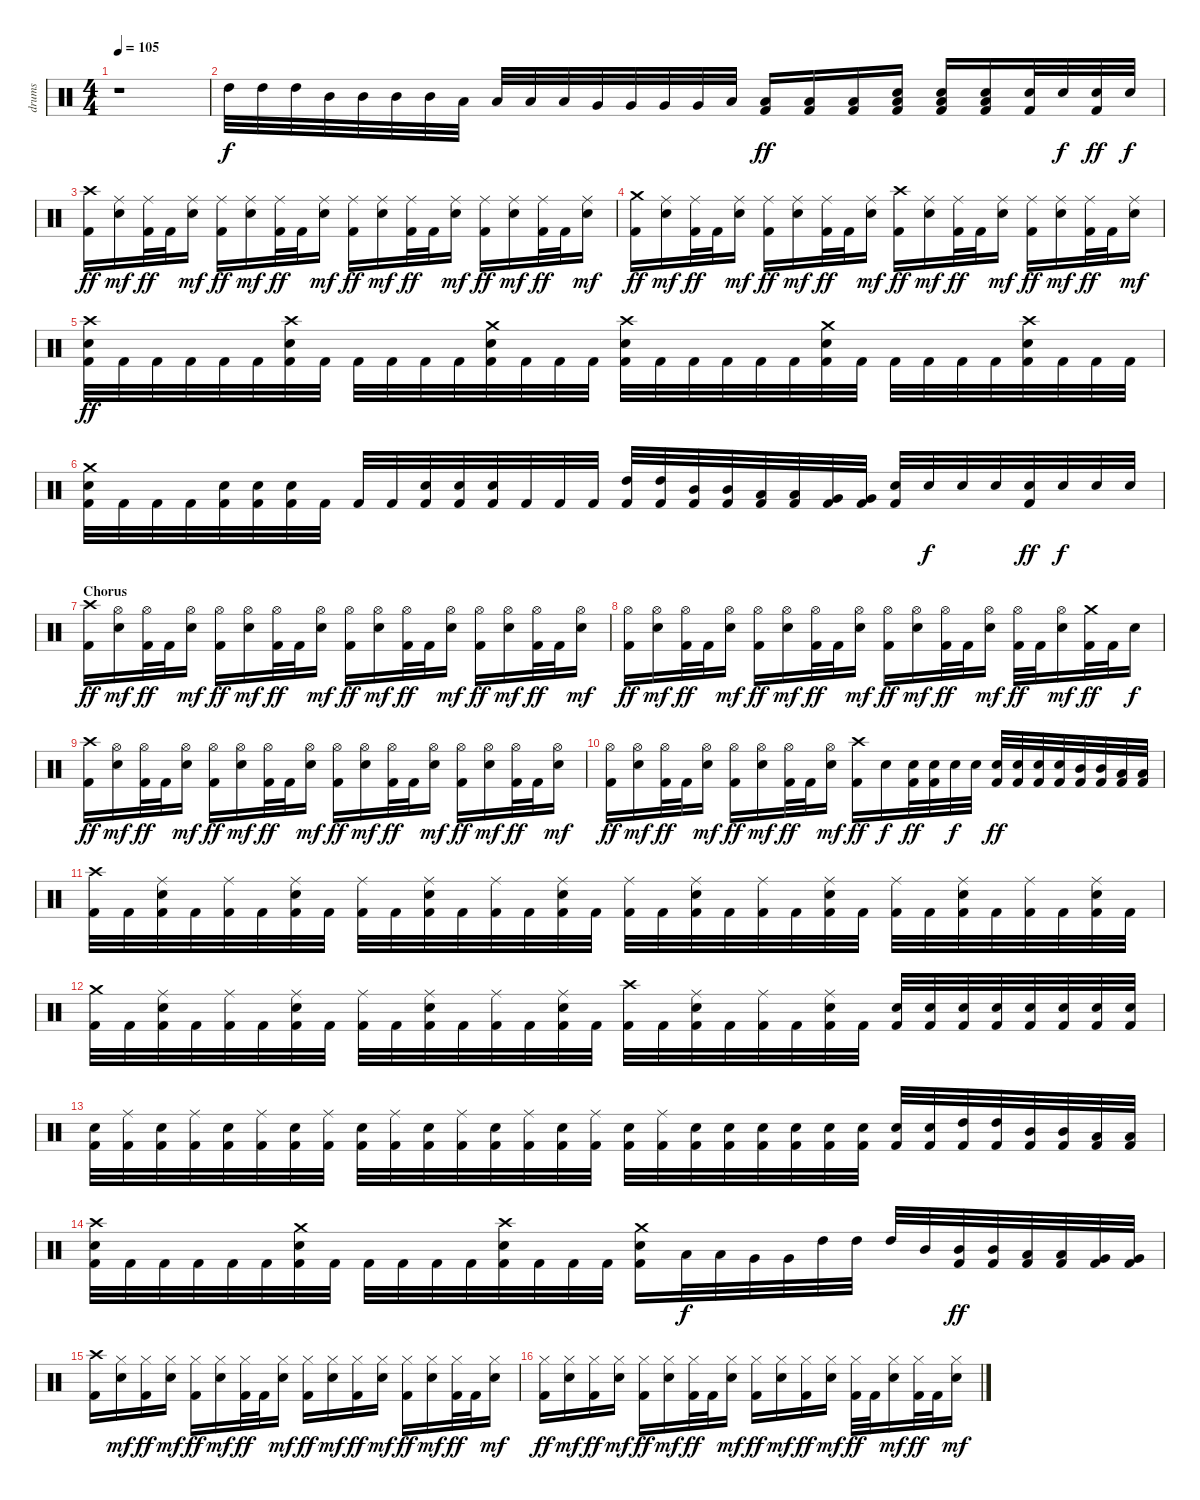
\track ("drums" "drums") {instrument percussion}
\staff {score}
\articulation defaults
\ts (4 4)
\tempo 105
\clef neutral
\ks c
r.1{dy ff} |
"High Tom (hit)".32{dy f} "High Tom (hit)".32 "High Tom (hit)".32 "Mid Tom (hit)".32 "Mid Tom (hit)".32 "Mid Tom (hit)".32 "Mid Tom (hit)".32 "Low Tom (hit)".32 "Low Tom (hit)".32 "Low Tom (hit)".32 "Low Tom (hit)".32 "Very Low Tom (hit)".32 "Very Low Tom (hit)".32 "Very Low Tom (hit)".32 "Very Low Tom (hit)".32 "Low Floor Tom (hit)".32 ("Low Floor Tom (hit)" "Kick (hit) 2").16{dy ff} ("Low Floor Tom (hit)" "Kick (hit) 2").16 ("Low Floor Tom (hit)" "Kick (hit) 2").16 ("Low Floor Tom (hit)" "Snare (hit) 2" "Kick (hit) 2").16 ("Low Floor Tom (hit)" "Snare (hit) 2" "Kick (hit) 2").16 ("Low Floor Tom (hit)" "Snare (hit) 2" "Kick (hit) 2").16 ("Snare (hit) 2" "Kick (hit) 2").32 "Snare (hit) 2".32{dy f} ("Snare (hit) 2" "Kick (hit) 2").32{dy ff} "Snare (hit) 2".32{dy f} |
("Crash high (hit)" "Kick (hit) 2").16{dy ff} ("Ride (middle)" "Snare (hit) 2").16{dy mf} ("Ride (middle)" "Kick (hit) 2").32{dy ff} "Kick (hit) 2".32 ("Ride (middle)" "Snare (hit) 2").16{dy mf} ("Ride (middle)" "Kick (hit) 2").16{dy ff} ("Ride (middle)" "Snare (hit) 2").16{dy mf} ("Ride (middle)" "Kick (hit) 2").32{dy ff} "Kick (hit) 2".32 ("Ride (middle)" "Snare (hit) 2").16{dy mf} ("Ride (middle)" "Kick (hit) 2").16{dy ff} ("Ride (middle)" "Snare (hit) 2").16{dy mf} ("Ride (middle)" "Kick (hit) 2").32{dy ff} "Kick (hit) 2".32 ("Ride (middle)" "Snare (hit) 2").16{dy mf} ("Ride (middle)" "Kick (hit) 2").16{dy ff} ("Ride (middle)" "Snare (hit) 2").16{dy mf} ("Ride (middle)" "Kick (hit) 2").32{dy ff} "Kick (hit) 2".32 ("Ride (middle)" "Snare (hit) 2").16{dy mf} |
("Crash medium (hit)" "Kick (hit) 2").16{dy ff} ("Ride (middle)" "Snare (hit) 2").16{dy mf} ("Ride (middle)" "Kick (hit) 2").32{dy ff} "Kick (hit) 2".32 ("Ride (middle)" "Snare (hit) 2").16{dy mf} ("Ride (middle)" "Kick (hit) 2").16{dy ff} ("Ride (middle)" "Snare (hit) 2").16{dy mf} ("Ride (middle)" "Kick (hit) 2").32{dy ff} "Kick (hit) 2".32 ("Ride (middle)" "Snare (hit) 2").16{dy mf} ("Crash high (hit)" "Kick (hit) 2").16{dy ff} ("Ride (middle)" "Snare (hit) 2").16{dy mf} ("Ride (middle)" "Kick (hit) 2").32{dy ff} "Kick (hit) 2".32 ("Ride (middle)" "Snare (hit) 2").16{dy mf} ("Ride (middle)" "Kick (hit) 2").16{dy ff} ("Ride (middle)" "Snare (hit) 2").16{dy mf} ("Ride (middle)" "Kick (hit) 2").32{dy ff} "Kick (hit) 2".32 ("Ride (middle)" "Snare (hit) 2").16{dy mf} |
("Crash high (hit)" "Snare (hit) 2" "Kick (hit) 2").32{dy ff} "Kick (hit) 2".32 "Kick (hit) 2".32 "Kick (hit) 2".32 "Kick (hit) 2".32 "Kick (hit) 2".32 ("Crash high (hit)" "Snare (hit) 2" "Kick (hit) 2").32 "Kick (hit) 2".32 "Kick (hit) 2".32 "Kick (hit) 2".32 "Kick (hit) 2".32 "Kick (hit) 2".32 ("Crash medium (hit)" "Snare (hit) 2" "Kick (hit) 2").32 "Kick (hit) 2".32 "Kick (hit) 2".32 "Kick (hit) 2".32 ("Crash high (hit)" "Snare (hit) 2" "Kick (hit) 2").32 "Kick (hit) 2".32 "Kick (hit) 2".32 "Kick (hit) 2".32 "Kick (hit) 2".32 "Kick (hit) 2".32 ("Crash medium (hit)" "Snare (hit) 2" "Kick (hit) 2").32 "Kick (hit) 2".32 "Kick (hit) 2".32 "Kick (hit) 2".32 "Kick (hit) 2".32 "Kick (hit) 2".32 ("Crash high (hit)" "Snare (hit) 2" "Kick (hit) 2").32 "Kick (hit) 2".32 "Kick (hit) 2".32 "Kick (hit) 2".32 |
("Crash medium (hit)" "Snare (hit) 2" "Kick (hit) 2").32 "Kick (hit) 2".32 "Kick (hit) 2".32 "Kick (hit) 2".32 ("Snare (hit) 2" "Kick (hit) 2").32 ("Snare (hit) 2" "Kick (hit) 2").32 ("Snare (hit) 2" "Kick (hit) 2").32 "Kick (hit) 2".32 "Kick (hit) 2".32 "Kick (hit) 2".32 ("Snare (hit) 2" "Kick (hit) 2").32 ("Snare (hit) 2" "Kick (hit) 2").32 ("Snare (hit) 2" "Kick (hit) 2").32 "Kick (hit) 2".32 "Kick (hit) 2".32 "Kick (hit) 2".32 ("High Tom (hit)" "Kick (hit) 2").32 ("High Tom (hit)" "Kick (hit) 2").32 ("Mid Tom (hit)" "Kick (hit) 2").32 ("Mid Tom (hit)" "Kick (hit) 2").32 ("Low Tom (hit)" "Kick (hit) 2").32 ("Low Tom (hit)" "Kick (hit) 2").32 ("Very Low Tom (hit)" "Kick (hit) 2").32 ("Very Low Tom (hit)" "Kick (hit) 2").32 ("Snare (hit) 2" "Kick (hit) 2").32 "Snare (hit) 2".32{dy f} "Snare (hit) 2".32 "Snare (hit) 2".32 ("Snare (hit) 2" "Kick (hit) 2").32{dy ff} "Snare (hit) 2".32{dy f} "Snare (hit) 2".32 "Snare (hit) 2".32 |
\section ("" "Chorus")
("Crash high (hit)" "Kick (hit) 2").16{dy ff} ("Hi-Hat (open)" "Snare (hit) 2").16{dy mf} ("Hi-Hat (open)" "Kick (hit) 2").32{dy ff} "Kick (hit) 2".32 ("Hi-Hat (open)" "Snare (hit) 2").16{dy mf} ("Hi-Hat (open)" "Kick (hit) 2").16{dy ff} ("Hi-Hat (open)" "Snare (hit) 2").16{dy mf} ("Hi-Hat (open)" "Kick (hit) 2").32{dy ff} "Kick (hit) 2".32 ("Hi-Hat (open)" "Snare (hit) 2").16{dy mf} ("Hi-Hat (open)" "Kick (hit) 2").16{dy ff} ("Hi-Hat (open)" "Snare (hit) 2").16{dy mf} ("Hi-Hat (open)" "Kick (hit) 2").32{dy ff} "Kick (hit) 2".32 ("Hi-Hat (open)" "Snare (hit) 2").16{dy mf} ("Hi-Hat (open)" "Kick (hit) 2").16{dy ff} ("Hi-Hat (open)" "Snare (hit) 2").16{dy mf} ("Hi-Hat (open)" "Kick (hit) 2").32{dy ff} "Kick (hit) 2".32 ("Hi-Hat (open)" "Snare (hit) 2").16{dy mf} |
("Hi-Hat (open)" "Kick (hit) 2").16{dy ff} ("Hi-Hat (open)" "Snare (hit) 2").16{dy mf} ("Hi-Hat (open)" "Kick (hit) 2").32{dy ff} "Kick (hit) 2".32 ("Hi-Hat (open)" "Snare (hit) 2").16{dy mf} ("Hi-Hat (open)" "Kick (hit) 2").16{dy ff} ("Hi-Hat (open)" "Snare (hit) 2").16{dy mf} ("Hi-Hat (open)" "Kick (hit) 2").32{dy ff} "Kick (hit) 2".32 ("Hi-Hat (open)" "Snare (hit) 2").16{dy mf} ("Hi-Hat (open)" "Kick (hit) 2").16{dy ff} ("Hi-Hat (open)" "Snare (hit) 2").16{dy mf} ("Hi-Hat (open)" "Kick (hit) 2").32{dy ff} "Kick (hit) 2".32 ("Hi-Hat (open)" "Snare (hit) 2").16{dy mf} ("Hi-Hat (open)" "Kick (hit) 2").32{dy ff} "Kick (hit) 2".32 ("Hi-Hat (open)" "Snare (hit) 2").16{dy mf} ("Crash medium (hit)" "Kick (hit) 2").32{dy ff} "Kick (hit) 2".32 "Snare (hit) 2".16{dy f} |
("Crash high (hit)" "Kick (hit) 2").16{dy ff} ("Hi-Hat (open)" "Snare (hit) 2").16{dy mf} ("Hi-Hat (open)" "Kick (hit) 2").32{dy ff} "Kick (hit) 2".32 ("Hi-Hat (open)" "Snare (hit) 2").16{dy mf} ("Hi-Hat (open)" "Kick (hit) 2").16{dy ff} ("Hi-Hat (open)" "Snare (hit) 2").16{dy mf} ("Hi-Hat (open)" "Kick (hit) 2").32{dy ff} "Kick (hit) 2".32 ("Hi-Hat (open)" "Snare (hit) 2").16{dy mf} ("Hi-Hat (open)" "Kick (hit) 2").16{dy ff} ("Hi-Hat (open)" "Snare (hit) 2").16{dy mf} ("Hi-Hat (open)" "Kick (hit) 2").32{dy ff} "Kick (hit) 2".32 ("Hi-Hat (open)" "Snare (hit) 2").16{dy mf} ("Hi-Hat (open)" "Kick (hit) 2").16{dy ff} ("Hi-Hat (open)" "Snare (hit) 2").16{dy mf} ("Hi-Hat (open)" "Kick (hit) 2").32{dy ff} "Kick (hit) 2".32 ("Hi-Hat (open)" "Snare (hit) 2").16{dy mf} |
("Hi-Hat (open)" "Kick (hit) 2").16{dy ff} ("Hi-Hat (open)" "Snare (hit) 2").16{dy mf} ("Hi-Hat (open)" "Kick (hit) 2").32{dy ff} "Kick (hit) 2".32 ("Hi-Hat (open)" "Snare (hit) 2").16{dy mf} ("Hi-Hat (open)" "Kick (hit) 2").16{dy ff} ("Hi-Hat (open)" "Snare (hit) 2").16{dy mf} ("Hi-Hat (open)" "Kick (hit) 2").32{dy ff} "Kick (hit) 2".32 ("Hi-Hat (open)" "Snare (hit) 2").16{dy mf} ("Crash high (hit)" "Kick (hit) 2").16{dy ff} "Snare (hit) 2".16{dy f} ("Snare (hit) 2" "Kick (hit) 2").32{dy ff} ("Snare (hit) 2" "Kick (hit) 2").32 "Snare (hit) 2".32{dy f} "Snare (hit) 2".32 ("Snare (hit) 2" "Kick (hit) 2").32{dy ff} ("Snare (hit) 2" "Kick (hit) 2").32 ("Snare (hit) 2" "Kick (hit) 2").32 ("Snare (hit) 2" "Kick (hit) 2").32 ("Mid Tom (hit)" "Kick (hit) 2").32 ("Mid Tom (hit)" "Kick (hit) 2").32 ("Low Tom (hit)" "Kick (hit) 2").32 ("Low Tom (hit)" "Kick (hit) 2").32 |
("Crash high (hit)" "Kick (hit) 2").32 "Kick (hit) 2".32 ("Ride (middle)" "Snare (hit) 2" "Kick (hit) 2").32 "Kick (hit) 2".32 ("Ride (middle)" "Kick (hit) 2").32 "Kick (hit) 2".32 ("Ride (middle)" "Snare (hit) 2" "Kick (hit) 2").32 "Kick (hit) 2".32 ("Ride (middle)" "Kick (hit) 2").32 "Kick (hit) 2".32 ("Ride (middle)" "Snare (hit) 2" "Kick (hit) 2").32 "Kick (hit) 2".32 ("Ride (middle)" "Kick (hit) 2").32 "Kick (hit) 2".32 ("Ride (middle)" "Snare (hit) 2" "Kick (hit) 2").32 "Kick (hit) 2".32 ("Ride (middle)" "Kick (hit) 2").32 "Kick (hit) 2".32 ("Ride (middle)" "Snare (hit) 2" "Kick (hit) 2").32 "Kick (hit) 2".32 ("Ride (middle)" "Kick (hit) 2").32 "Kick (hit) 2".32 ("Ride (middle)" "Snare (hit) 2" "Kick (hit) 2").32 "Kick (hit) 2".32 ("Ride (middle)" "Kick (hit) 2").32 "Kick (hit) 2".32 ("Ride (middle)" "Snare (hit) 2" "Kick (hit) 2").32 "Kick (hit) 2".32 ("Ride (middle)" "Kick (hit) 2").32 "Kick (hit) 2".32 ("Ride (middle)" "Snare (hit) 2" "Kick (hit) 2").32 "Kick (hit) 2".32 |
("Crash medium (hit)" "Kick (hit) 2").32 "Kick (hit) 2".32 ("Ride (middle)" "Snare (hit) 2" "Kick (hit) 2").32 "Kick (hit) 2".32 ("Ride (middle)" "Kick (hit) 2").32 "Kick (hit) 2".32 ("Ride (middle)" "Snare (hit) 2" "Kick (hit) 2").32 "Kick (hit) 2".32 ("Ride (middle)" "Kick (hit) 2").32 "Kick (hit) 2".32 ("Ride (middle)" "Snare (hit) 2" "Kick (hit) 2").32 "Kick (hit) 2".32 ("Ride (middle)" "Kick (hit) 2").32 "Kick (hit) 2".32 ("Ride (middle)" "Snare (hit) 2" "Kick (hit) 2").32 "Kick (hit) 2".32 ("Crash high (hit)" "Kick (hit) 2").32 "Kick (hit) 2".32 ("Ride (middle)" "Snare (hit) 2" "Kick (hit) 2").32 "Kick (hit) 2".32 ("Ride (middle)" "Kick (hit) 2").32 "Kick (hit) 2".32 ("Ride (middle)" "Snare (hit) 2" "Kick (hit) 2").32 "Kick (hit) 2".32 ("Snare (hit) 2" "Kick (hit) 2").32 ("Snare (hit) 2" "Kick (hit) 2").32 ("Snare (hit) 2" "Kick (hit) 2").32 ("Snare (hit) 2" "Kick (hit) 2").32 ("Snare (hit) 2" "Kick (hit) 2").32 ("Snare (hit) 2" "Kick (hit) 2").32 ("Snare (hit) 2" "Kick (hit) 2").32 ("Snare (hit) 2" "Kick (hit) 2").32 |
("Snare (hit) 2" "Kick (hit) 2").32 ("Ride (middle)" "Kick (hit) 2").32 ("Snare (hit) 2" "Kick (hit) 2").32 ("Ride (middle)" "Kick (hit) 2").32 ("Snare (hit) 2" "Kick (hit) 2").32 ("Ride (middle)" "Kick (hit) 2").32 ("Snare (hit) 2" "Kick (hit) 2").32 ("Ride (middle)" "Kick (hit) 2").32 ("Snare (hit) 2" "Kick (hit) 2").32 ("Ride (middle)" "Kick (hit) 2").32 ("Snare (hit) 2" "Kick (hit) 2").32 ("Ride (middle)" "Kick (hit) 2").32 ("Snare (hit) 2" "Kick (hit) 2").32 ("Ride (middle)" "Kick (hit) 2").32 ("Snare (hit) 2" "Kick (hit) 2").32 ("Ride (middle)" "Kick (hit) 2").32 ("Snare (hit) 2" "Kick (hit) 2").32 ("Ride (middle)" "Kick (hit) 2").32 ("Snare (hit) 2" "Kick (hit) 2").32 ("Snare (hit) 2" "Kick (hit) 2").32 ("Snare (hit) 2" "Kick (hit) 2").32 ("Snare (hit) 2" "Kick (hit) 2").32 ("Snare (hit) 2" "Kick (hit) 2").32 ("Snare (hit) 2" "Kick (hit) 2").32 ("Snare (hit) 2" "Kick (hit) 2").32 ("Snare (hit) 2" "Kick (hit) 2").32 ("High Tom (hit)" "Kick (hit) 2").32 ("High Tom (hit)" "Kick (hit) 2").32 ("Mid Tom (hit)" "Kick (hit) 2").32 ("Mid Tom (hit)" "Kick (hit) 2").32 ("Low Tom (hit)" "Kick (hit) 2").32 ("Low Tom (hit)" "Kick (hit) 2").32 |
("Crash high (hit)" "Snare (hit) 2" "Kick (hit) 2").32 "Kick (hit) 2".32 "Kick (hit) 2".32 "Kick (hit) 2".32 "Kick (hit) 2".32 "Kick (hit) 2".32 ("Crash medium (hit)" "Snare (hit) 2" "Kick (hit) 2").32 "Kick (hit) 2".32 "Kick (hit) 2".32 "Kick (hit) 2".32 "Kick (hit) 2".32 "Kick (hit) 2".32 ("Crash high (hit)" "Snare (hit) 2" "Kick (hit) 2").32 "Kick (hit) 2".32 "Kick (hit) 2".32 "Kick (hit) 2".32 ("Crash medium (hit)" "Snare (hit) 2" "Kick (hit) 2").16 "Low Floor Tom (hit)".32{dy f} "Low Floor Tom (hit)".32 "Very Low Tom (hit)".32 "Very Low Tom (hit)".32 "High Tom (hit)".32 "High Tom (hit)".32 "High Tom (hit)".32 "Mid Tom (hit)".32 ("Mid Tom (hit)" "Kick (hit) 2").32{dy ff} ("Mid Tom (hit)" "Kick (hit) 2").32 ("Low Tom (hit)" "Kick (hit) 2").32 ("Low Tom (hit)" "Kick (hit) 2").32 ("Very Low Tom (hit)" "Kick (hit) 2").32 ("Very Low Tom (hit)" "Kick (hit) 2").32 |
\section ("" "")
("Crash high (hit)" "Kick (hit) 2").16 ("Hi-Hat (closed)" "Snare (hit) 2").16{dy mf} ("Hi-Hat (closed)" "Kick (hit) 2").16{dy ff} ("Hi-Hat (closed)" "Snare (hit) 2").16{dy mf} ("Hi-Hat (closed)" "Kick (hit) 2").16{dy ff} ("Hi-Hat (closed)" "Snare (hit) 2").16{dy mf} ("Hi-Hat (closed)" "Kick (hit) 2").32{dy ff} "Kick (hit) 2".32 ("Hi-Hat (closed)" "Snare (hit) 2").16{dy mf} ("Hi-Hat (closed)" "Kick (hit) 2").16{dy ff} ("Hi-Hat (closed)" "Snare (hit) 2").16{dy mf} ("Hi-Hat (closed)" "Kick (hit) 2").16{dy ff} ("Hi-Hat (closed)" "Snare (hit) 2").16{dy mf} ("Hi-Hat (closed)" "Kick (hit) 2").16{dy ff} ("Hi-Hat (closed)" "Snare (hit) 2").16{dy mf} ("Hi-Hat (closed)" "Kick (hit) 2").32{dy ff} "Kick (hit) 2".32 ("Hi-Hat (closed)" "Snare (hit) 2").16{dy mf} |
("Hi-Hat (closed)" "Kick (hit) 2").16{dy ff} ("Hi-Hat (closed)" "Snare (hit) 2").16{dy mf} ("Hi-Hat (closed)" "Kick (hit) 2").16{dy ff} ("Hi-Hat (closed)" "Snare (hit) 2").16{dy mf} ("Hi-Hat (closed)" "Kick (hit) 2").16{dy ff} ("Hi-Hat (closed)" "Snare (hit) 2").16{dy mf} ("Hi-Hat (closed)" "Kick (hit) 2").32{dy ff} "Kick (hit) 2".32 ("Hi-Hat (closed)" "Snare (hit) 2").16{dy mf} ("Hi-Hat (closed)" "Kick (hit) 2").16{dy ff} ("Hi-Hat (closed)" "Snare (hit) 2").16{dy mf} ("Hi-Hat (closed)" "Kick (hit) 2").16{dy ff} ("Hi-Hat (closed)" "Snare (hit) 2").16{dy mf} ("Hi-Hat (closed)" "Kick (hit) 2").32{dy ff} "Kick (hit) 2".32 ("Hi-Hat (closed)" "Snare (hit) 2").16{dy mf} ("Hi-Hat (closed)" "Kick (hit) 2").32{dy ff} "Kick (hit) 2".32 ("Hi-Hat (closed)" "Snare (hit) 2").16{dy mf}
